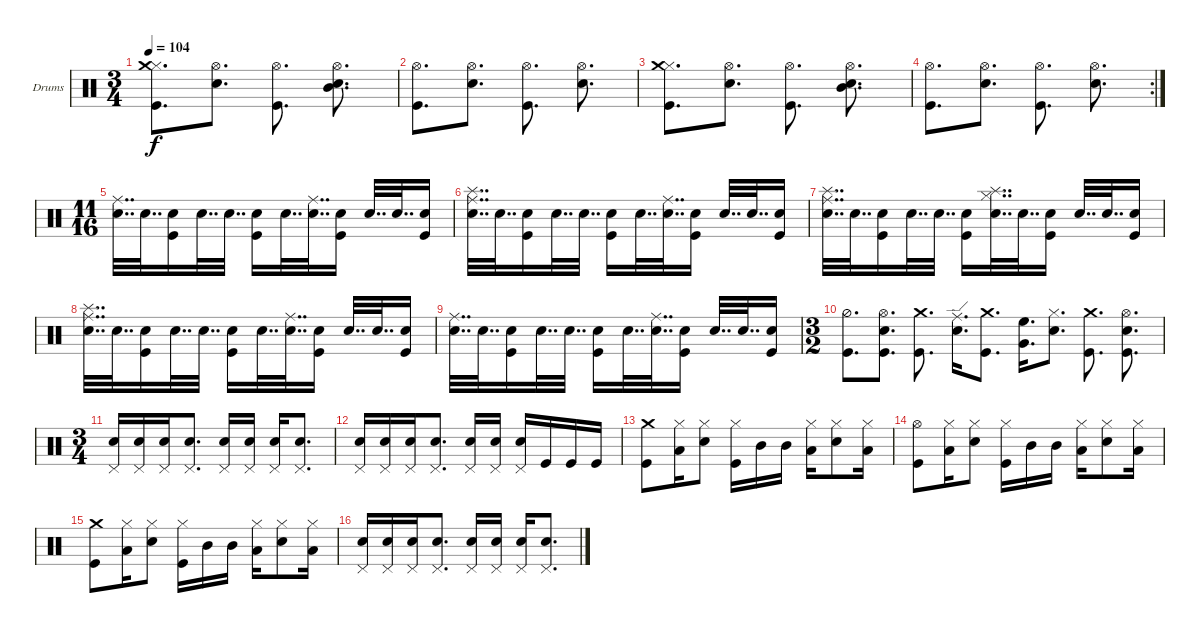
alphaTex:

\bracketExtendMode groupsimilarinstruments
\firstSystemTrackNameOrientation horizontal
\otherSystemsTrackNameOrientation horizontal
\track ("Drumkit" "Drums") {instrument percussion}
\staff {score}
\articulation defaults
\ts (3 4)
\tempo 104
\clef neutral
\ks c
("Kick (hit)" "Hi-Hat (closed)" "Crash medium (hit)").8{d dy f} ("Snare (hit) 2" "Hi-Hat (open)").8{d} ("Kick (hit)" "Hi-Hat (open)").8{d} ("Snare (hit) 2" "Hi-Hat (open)" "Mid Tom (hit)").8{d} |
("Kick (hit)" "Hi-Hat (open)").8{d} ("Snare (hit) 2" "Hi-Hat (open)").8{d} ("Kick (hit)" "Hi-Hat (open)").8{d} ("Snare (hit) 2" "Hi-Hat (open)").8{d} |
("Kick (hit)" "Hi-Hat (closed)" "Crash medium (hit)").8{d} ("Snare (hit) 2" "Hi-Hat (open)").8{d} ("Kick (hit)" "Hi-Hat (open)").8{d} ("Snare (hit) 2" "Hi-Hat (open)" "Mid Tom (hit)").8{d} |
\rc 2
("Kick (hit)" "Hi-Hat (open)").8{d} ("Snare (hit) 2" "Hi-Hat (open)").8{d} ("Kick (hit)" "Hi-Hat (open)").8{d} ("Snare (hit) 2" "Hi-Hat (open)").8{d} |
\ts (11 16)
("Snare (hit) 2" "Ride (middle)").32{dd} "Snare (hit) 2".32{dd} ("Snare (hit) 2" "Kick (hit)").16 "Snare (hit) 2".32{dd} "Snare (hit) 2".32{dd} ("Snare (hit) 2" "Kick (hit)").16 "Snare (hit) 2".32{dd} ("Snare (hit) 2" "Ride (middle)").32{dd} ("Snare (hit) 2" "Kick (hit)").16 "Snare (hit) 2".32{dd} "Snare (hit) 2".32{dd} ("Snare (hit) 2" "Kick (hit)").16 |
("Snare (hit) 2" "Ride (middle)" "Splash (hit)").32{dd} "Snare (hit) 2".32{dd} ("Snare (hit) 2" "Kick (hit)").16 "Snare (hit) 2".32{dd} "Snare (hit) 2".32{dd} ("Snare (hit) 2" "Kick (hit)").16 "Snare (hit) 2".32{dd} ("Snare (hit) 2" "Ride (middle)").32{dd} ("Snare (hit) 2" "Kick (hit)").16 "Snare (hit) 2".32{dd} "Snare (hit) 2".32{dd} ("Snare (hit) 2" "Kick (hit)").16 |
("Snare (hit) 2" "Ride (middle)" "Splash (hit)").32{dd} "Snare (hit) 2".32{dd} ("Snare (hit) 2" "Kick (hit)").16 "Snare (hit) 2".32{dd} "Snare (hit) 2".32{dd} ("Snare (hit) 2" "Kick (hit)").16 ("Snare (hit) 2" "Splash (hit)" "Hi-Hat (closed)").32{dd} "Snare (hit) 2".32{dd} ("Snare (hit) 2" "Kick (hit)").16 "Snare (hit) 2".32{dd} "Snare (hit) 2".32{dd} ("Snare (hit) 2" "Kick (hit)").16 |
("Snare (hit) 2" "Ride (middle)" "Splash (hit)").32{dd} "Snare (hit) 2".32{dd} ("Snare (hit) 2" "Kick (hit)").16 "Snare (hit) 2".32{dd} "Snare (hit) 2".32{dd} ("Snare (hit) 2" "Kick (hit)").16 "Snare (hit) 2".32{dd} ("Snare (hit) 2" "Ride (middle)").32{dd} ("Snare (hit) 2" "Kick (hit)").16 "Snare (hit) 2".32{dd} "Snare (hit) 2".32{dd} ("Snare (hit) 2" "Kick (hit)").16 |
("Snare (hit) 2" "Ride (middle)").32{dd} "Snare (hit) 2".32{dd} ("Snare (hit) 2" "Kick (hit)").16 "Snare (hit) 2".32{dd} "Snare (hit) 2".32{dd} ("Snare (hit) 2" "Kick (hit)").16 "Snare (hit) 2".32{dd} ("Snare (hit) 2" "Ride (middle)").32{dd} ("Snare (hit) 2" "Kick (hit)").16 "Snare (hit) 2".32{dd} "Snare (hit) 2".32{dd} ("Snare (hit) 2" "Kick (hit)").16 |
\ts (3 2)
("Kick (hit)" "Hi-Hat (half)").8{d} ("Kick (hit)" "Snare (hit) 2" "Hi-Hat (open)").8{d} ("Kick (hit)" "Crash medium (hit)").8{d} ("Snare (hit) 2" "Ride (edge)").16{d} ("Kick (hit)" "Crash medium (hit)").8{d} ("Very Low Tom (hit)" "High Floor Tom (hit)").16{d} ("Snare (hit) 2" "Hi-Hat (closed)").8{d} ("Kick (hit)" "Crash medium (hit)").8{d} ("Kick (hit)" "Snare (hit) 2" "Hi-Hat (open)").8{d} |
\ts (3 4)
("Pedal Hi-Hat (hit)" "Snare (hit) 2").16 ("Pedal Hi-Hat (hit)" "Snare (hit) 2").16 ("Pedal Hi-Hat (hit)" "Snare (hit) 2").16 ("Pedal Hi-Hat (hit)" "Snare (hit) 2").8{d} ("Pedal Hi-Hat (hit)" "Snare (hit) 2").16 ("Pedal Hi-Hat (hit)" "Snare (hit) 2").16 ("Pedal Hi-Hat (hit)" "Snare (hit) 2").16 ("Pedal Hi-Hat (hit)" "Snare (hit) 2").8{d} |
("Pedal Hi-Hat (hit)" "Snare (hit) 2").16 ("Pedal Hi-Hat (hit)" "Snare (hit) 2").16 ("Pedal Hi-Hat (hit)" "Snare (hit) 2").16 ("Pedal Hi-Hat (hit)" "Snare (hit) 2").8{d} ("Pedal Hi-Hat (hit)" "Snare (hit) 2").16 ("Pedal Hi-Hat (hit)" "Snare (hit) 2").16 ("Pedal Hi-Hat (hit)" "Snare (hit) 2").16 "Kick (hit)".16 "Kick (hit)".16 "Kick (hit)".16 |
("Kick (hit)" "Crash medium (hit)").8 ("Hi-Hat (closed)" "Low Tom (hit)").16 ("Snare (hit) 2" "Hi-Hat (closed)").8 ("Hi-Hat (closed)" "Kick (hit)").16 "Mid Tom (hit)".16 "Mid Tom (hit)".16 ("Hi-Hat (closed)" "Low Tom (hit)").16 ("Snare (hit) 2" "Hi-Hat (closed)").8 ("Hi-Hat (closed)" "Low Tom (hit)").16 |
("Kick (hit)" "Hi-Hat (open)").8 ("Hi-Hat (closed)" "Low Tom (hit)").16 ("Snare (hit) 2" "Hi-Hat (closed)").8 ("Hi-Hat (closed)" "Kick (hit)").16 "Mid Tom (hit)".16 "Mid Tom (hit)".16 ("Hi-Hat (closed)" "Low Tom (hit)").16 ("Snare (hit) 2" "Hi-Hat (closed)").8 ("Hi-Hat (closed)" "Low Tom (hit)").16 |
("Kick (hit)" "Crash medium (hit)").8 ("Hi-Hat (closed)" "Low Tom (hit)").16 ("Snare (hit) 2" "Hi-Hat (closed)").8 ("Hi-Hat (closed)" "Kick (hit)").16 "Mid Tom (hit)".16 "Mid Tom (hit)".16 ("Hi-Hat (closed)" "Low Tom (hit)").16 ("Snare (hit) 2" "Hi-Hat (closed)").8 ("Hi-Hat (closed)" "Low Tom (hit)").16 |
("Pedal Hi-Hat (hit)" "Snare (hit) 2").16 ("Pedal Hi-Hat (hit)" "Snare (hit) 2").16 ("Pedal Hi-Hat (hit)" "Snare (hit) 2").16 ("Pedal Hi-Hat (hit)" "Snare (hit) 2").8{d} ("Pedal Hi-Hat (hit)" "Snare (hit) 2").16 ("Pedal Hi-Hat (hit)" "Snare (hit) 2").16 ("Pedal Hi-Hat (hit)" "Snare (hit) 2").16 ("Pedal Hi-Hat (hit)" "Snare (hit) 2").8{d}
